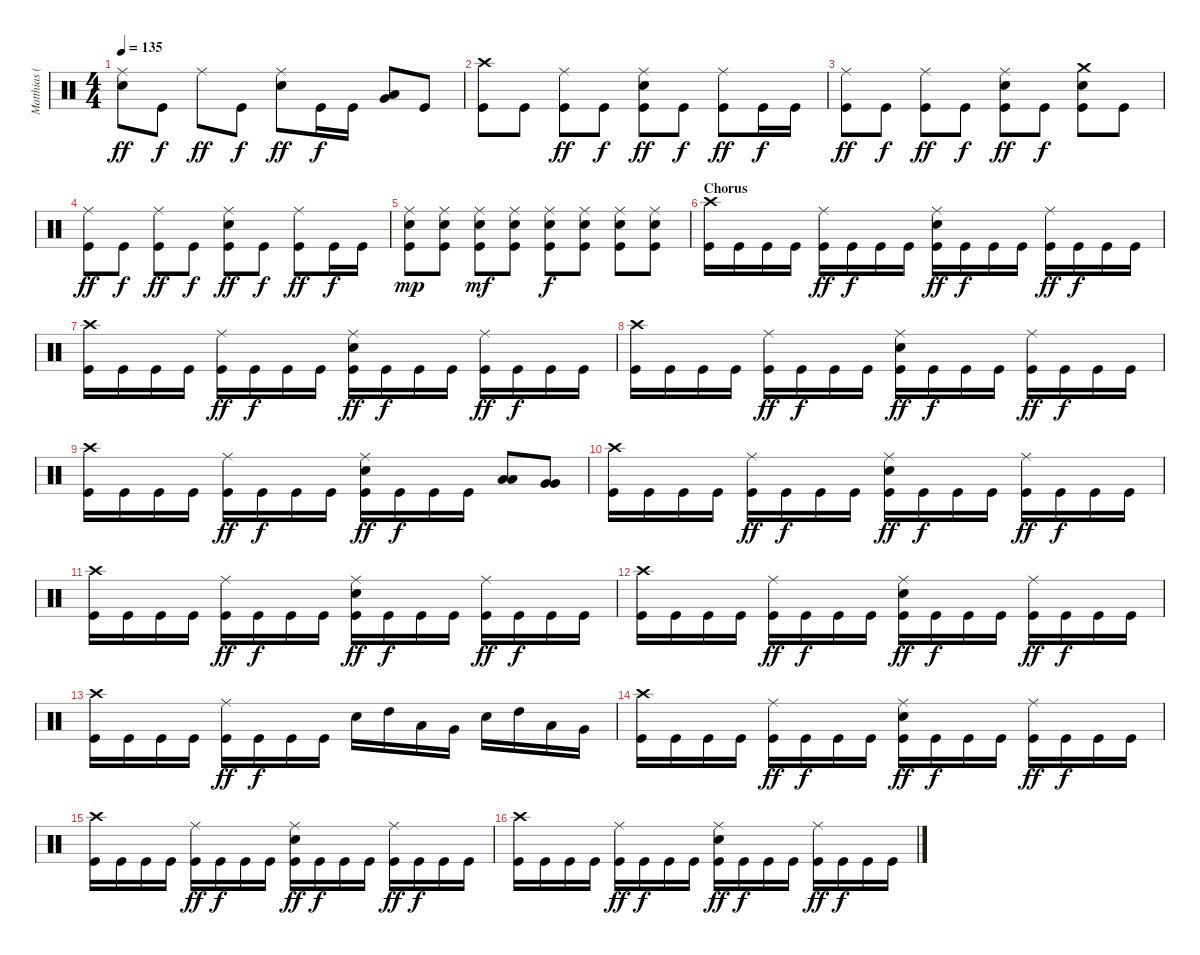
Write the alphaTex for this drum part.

\track ("Matthias (Drums)" "Matthias (") {instrument percussion}
\staff {score}
\articulation defaults
\ts (4 4)
\tempo 135
\clef neutral
\ks c
("Ride (middle)" "Electric Snare (hit)").8{dy ff} "Kick (hit)".8{dy f} "Ride (middle)".8{dy ff} "Kick (hit)".8{dy f} ("Ride (middle)" "Electric Snare (hit)").8{dy ff} "Kick (hit)".16{dy f} "Kick (hit)".16 ("Very Low Tom (hit)" "Low Tom (hit)").8{bu 120} "Kick (hit)".8 |
("Crash high (hit)" "Kick (hit)").8 "Kick (hit)".8 ("Ride (middle)" "Kick (hit)").8{dy ff} "Kick (hit)".8{dy f} ("Ride (middle)" "Electric Snare (hit)" "Kick (hit)").8{dy ff} "Kick (hit)".8{dy f} ("Ride (middle)" "Kick (hit)").8{dy ff} "Kick (hit)".16{dy f} "Kick (hit)".16 |
("Ride (middle)" "Kick (hit)").8{dy ff} "Kick (hit)".8{dy f} ("Ride (middle)" "Kick (hit)").8{dy ff} "Kick (hit)".8{dy f} ("Ride (middle)" "Electric Snare (hit)" "Kick (hit)").8{dy ff} "Kick (hit)".8{dy f} ("Crash medium (hit)" "Electric Snare (hit)" "Kick (hit)").8 "Kick (hit)".8 |
("Ride (middle)" "Kick (hit)").8{dy ff} "Kick (hit)".8{dy f} ("Ride (middle)" "Kick (hit)").8{dy ff} "Kick (hit)".8{dy f} ("Ride (middle)" "Electric Snare (hit)" "Kick (hit)").8{dy ff} "Kick (hit)".8{dy f} ("Ride (middle)" "Kick (hit)").8{dy ff} "Kick (hit)".16{dy f} "Kick (hit)".16 |
("Ride (middle)" "Electric Snare (hit)" "Kick (hit)").8{dy mp} ("Ride (middle)" "Electric Snare (hit)" "Kick (hit)").8 ("Ride (middle)" "Electric Snare (hit)" "Kick (hit)").8{dy mf} ("Ride (middle)" "Electric Snare (hit)" "Kick (hit)").8 ("Ride (middle)" "Electric Snare (hit)" "Kick (hit)").8{dy f} ("Ride (middle)" "Electric Snare (hit)" "Kick (hit)").8 ("Ride (middle)" "Electric Snare (hit)" "Kick (hit)").8 ("Ride (middle)" "Electric Snare (hit)" "Kick (hit)").8 |
\section ("" "Chorus")
("Crash high (hit)" "Kick (hit)").16 "Kick (hit)".16 "Kick (hit)".16 "Kick (hit)".16 ("Ride (middle)" "Kick (hit)").16{dy ff} "Kick (hit)".16{dy f} "Kick (hit)".16 "Kick (hit)".16 ("Ride (middle)" "Electric Snare (hit)" "Kick (hit)").16{dy ff} "Kick (hit)".16{dy f} "Kick (hit)".16 "Kick (hit)".16 ("Ride (middle)" "Kick (hit)").16{dy ff} "Kick (hit)".16{dy f} "Kick (hit)".16 "Kick (hit)".16 |
("Crash high (hit)" "Kick (hit)").16 "Kick (hit)".16 "Kick (hit)".16 "Kick (hit)".16 ("Ride (middle)" "Kick (hit)").16{dy ff} "Kick (hit)".16{dy f} "Kick (hit)".16 "Kick (hit)".16 ("Ride (middle)" "Electric Snare (hit)" "Kick (hit)").16{dy ff} "Kick (hit)".16{dy f} "Kick (hit)".16 "Kick (hit)".16 ("Ride (middle)" "Kick (hit)").16{dy ff} "Kick (hit)".16{dy f} "Kick (hit)".16 "Kick (hit)".16 |
("Crash high (hit)" "Kick (hit)").16 "Kick (hit)".16 "Kick (hit)".16 "Kick (hit)".16 ("Ride (middle)" "Kick (hit)").16{dy ff} "Kick (hit)".16{dy f} "Kick (hit)".16 "Kick (hit)".16 ("Ride (middle)" "Electric Snare (hit)" "Kick (hit)").16{dy ff} "Kick (hit)".16{dy f} "Kick (hit)".16 "Kick (hit)".16 ("Ride (middle)" "Kick (hit)").16{dy ff} "Kick (hit)".16{dy f} "Kick (hit)".16 "Kick (hit)".16 |
("Crash high (hit)" "Kick (hit)").16 "Kick (hit)".16 "Kick (hit)".16 "Kick (hit)".16 ("Ride (middle)" "Kick (hit)").16{dy ff} "Kick (hit)".16{dy f} "Kick (hit)".16 "Kick (hit)".16 ("Ride (middle)" "Electric Snare (hit)" "Kick (hit)").16{dy ff} "Kick (hit)".16{dy f} "Kick (hit)".16 "Kick (hit)".16 ("Low Tom (hit)" "Low Tom (hit)").8{bu 120} ("Very Low Tom (hit)" "Very Low Tom (hit)").8{bu 120} |
("Crash high (hit)" "Kick (hit)").16 "Kick (hit)".16 "Kick (hit)".16 "Kick (hit)".16 ("Ride (middle)" "Kick (hit)").16{dy ff} "Kick (hit)".16{dy f} "Kick (hit)".16 "Kick (hit)".16 ("Ride (middle)" "Electric Snare (hit)" "Kick (hit)").16{dy ff} "Kick (hit)".16{dy f} "Kick (hit)".16 "Kick (hit)".16 ("Ride (middle)" "Kick (hit)").16{dy ff} "Kick (hit)".16{dy f} "Kick (hit)".16 "Kick (hit)".16 |
("Crash high (hit)" "Kick (hit)").16 "Kick (hit)".16 "Kick (hit)".16 "Kick (hit)".16 ("Ride (middle)" "Kick (hit)").16{dy ff} "Kick (hit)".16{dy f} "Kick (hit)".16 "Kick (hit)".16 ("Ride (middle)" "Electric Snare (hit)" "Kick (hit)").16{dy ff} "Kick (hit)".16{dy f} "Kick (hit)".16 "Kick (hit)".16 ("Ride (middle)" "Kick (hit)").16{dy ff} "Kick (hit)".16{dy f} "Kick (hit)".16 "Kick (hit)".16 |
("Crash high (hit)" "Kick (hit)").16 "Kick (hit)".16 "Kick (hit)".16 "Kick (hit)".16 ("Ride (middle)" "Kick (hit)").16{dy ff} "Kick (hit)".16{dy f} "Kick (hit)".16 "Kick (hit)".16 ("Ride (middle)" "Electric Snare (hit)" "Kick (hit)").16{dy ff} "Kick (hit)".16{dy f} "Kick (hit)".16 "Kick (hit)".16 ("Ride (middle)" "Kick (hit)").16{dy ff} "Kick (hit)".16{dy f} "Kick (hit)".16 "Kick (hit)".16 |
("Crash high (hit)" "Kick (hit)").16 "Kick (hit)".16 "Kick (hit)".16 "Kick (hit)".16 ("Ride (middle)" "Kick (hit)").16{dy ff} "Kick (hit)".16{dy f} "Kick (hit)".16 "Kick (hit)".16 "Electric Snare (hit)".16 "High Tom (hit)".16 "Low Tom (hit)".16 "Very Low Tom (hit)".16 "Electric Snare (hit)".16 "High Tom (hit)".16 "Low Tom (hit)".16 "Very Low Tom (hit)".16 |
("Crash high (hit)" "Kick (hit)").16 "Kick (hit)".16 "Kick (hit)".16 "Kick (hit)".16 ("Ride (middle)" "Kick (hit)").16{dy ff} "Kick (hit)".16{dy f} "Kick (hit)".16 "Kick (hit)".16 ("Ride (middle)" "Electric Snare (hit)" "Kick (hit)").16{dy ff} "Kick (hit)".16{dy f} "Kick (hit)".16 "Kick (hit)".16 ("Ride (middle)" "Kick (hit)").16{dy ff} "Kick (hit)".16{dy f} "Kick (hit)".16 "Kick (hit)".16 |
("Crash high (hit)" "Kick (hit)").16 "Kick (hit)".16 "Kick (hit)".16 "Kick (hit)".16 ("Ride (middle)" "Kick (hit)").16{dy ff} "Kick (hit)".16{dy f} "Kick (hit)".16 "Kick (hit)".16 ("Ride (middle)" "Electric Snare (hit)" "Kick (hit)").16{dy ff} "Kick (hit)".16{dy f} "Kick (hit)".16 "Kick (hit)".16 ("Ride (middle)" "Kick (hit)").16{dy ff} "Kick (hit)".16{dy f} "Kick (hit)".16 "Kick (hit)".16 |
("Crash high (hit)" "Kick (hit)").16 "Kick (hit)".16 "Kick (hit)".16 "Kick (hit)".16 ("Ride (middle)" "Kick (hit)").16{dy ff} "Kick (hit)".16{dy f} "Kick (hit)".16 "Kick (hit)".16 ("Ride (middle)" "Electric Snare (hit)" "Kick (hit)").16{dy ff} "Kick (hit)".16{dy f} "Kick (hit)".16 "Kick (hit)".16 ("Ride (middle)" "Kick (hit)").16{dy ff} "Kick (hit)".16{dy f} "Kick (hit)".16 "Kick (hit)".16
